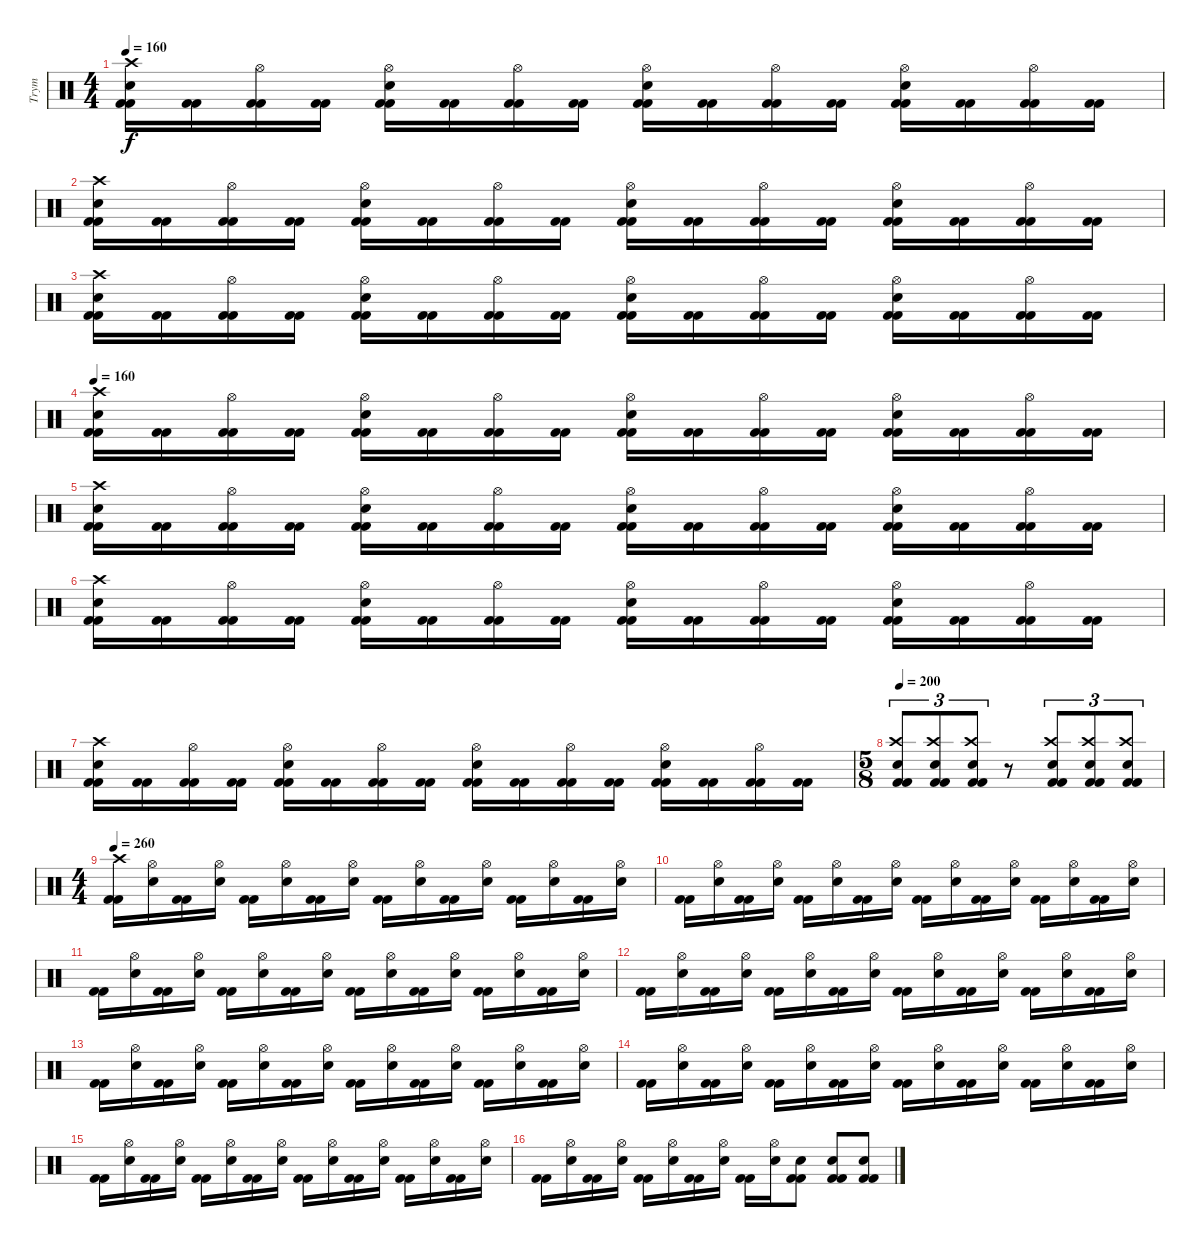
\track ("Trym" "Trym") {instrument percussion}
\staff {score}
\articulation defaults
\ts (4 4)
\tempo 160
\clef neutral
\ks c
("Kick (hit) 2" "Crash high (hit)" "Snare (hit) 2" "Kick (hit) 2").16{dy f} ("Kick (hit) 2" "Kick (hit) 2").16 ("Kick (hit) 2" "Hi-Hat (open)" "Kick (hit) 2").16 ("Kick (hit) 2" "Kick (hit) 2").16 ("Kick (hit) 2" "Hi-Hat (open)" "Snare (hit) 2" "Kick (hit) 2").16 ("Kick (hit) 2" "Kick (hit) 2").16 ("Kick (hit) 2" "Hi-Hat (open)" "Kick (hit) 2").16 ("Kick (hit) 2" "Kick (hit) 2").16 ("Kick (hit) 2" "Hi-Hat (open)" "Snare (hit) 2" "Kick (hit) 2").16 ("Kick (hit) 2" "Kick (hit) 2").16 ("Kick (hit) 2" "Hi-Hat (open)" "Kick (hit) 2").16 ("Kick (hit) 2" "Kick (hit) 2").16 ("Kick (hit) 2" "Hi-Hat (open)" "Snare (hit) 2" "Kick (hit) 2").16 ("Kick (hit) 2" "Kick (hit) 2").16 ("Kick (hit) 2" "Hi-Hat (open)" "Kick (hit) 2").16 ("Kick (hit) 2" "Kick (hit) 2").16 |
("Kick (hit) 2" "Crash high (hit)" "Snare (hit) 2" "Kick (hit) 2").16 ("Kick (hit) 2" "Kick (hit) 2").16 ("Kick (hit) 2" "Hi-Hat (open)" "Kick (hit) 2").16 ("Kick (hit) 2" "Kick (hit) 2").16 ("Kick (hit) 2" "Hi-Hat (open)" "Snare (hit) 2" "Kick (hit) 2").16 ("Kick (hit) 2" "Kick (hit) 2").16 ("Kick (hit) 2" "Hi-Hat (open)" "Kick (hit) 2").16 ("Kick (hit) 2" "Kick (hit) 2").16 ("Kick (hit) 2" "Hi-Hat (open)" "Snare (hit) 2" "Kick (hit) 2").16 ("Kick (hit) 2" "Kick (hit) 2").16 ("Kick (hit) 2" "Hi-Hat (open)" "Kick (hit) 2").16 ("Kick (hit) 2" "Kick (hit) 2").16 ("Kick (hit) 2" "Hi-Hat (open)" "Snare (hit) 2" "Kick (hit) 2").16 ("Kick (hit) 2" "Kick (hit) 2").16 ("Kick (hit) 2" "Hi-Hat (open)" "Kick (hit) 2").16 ("Kick (hit) 2" "Kick (hit) 2").16 |
("Kick (hit) 2" "Crash high (hit)" "Snare (hit) 2" "Kick (hit) 2").16 ("Kick (hit) 2" "Kick (hit) 2").16 ("Kick (hit) 2" "Hi-Hat (open)" "Kick (hit) 2").16 ("Kick (hit) 2" "Kick (hit) 2").16 ("Kick (hit) 2" "Hi-Hat (open)" "Snare (hit) 2" "Kick (hit) 2").16 ("Kick (hit) 2" "Kick (hit) 2").16 ("Kick (hit) 2" "Hi-Hat (open)" "Kick (hit) 2").16 ("Kick (hit) 2" "Kick (hit) 2").16 ("Kick (hit) 2" "Hi-Hat (open)" "Snare (hit) 2" "Kick (hit) 2").16 ("Kick (hit) 2" "Kick (hit) 2").16 ("Kick (hit) 2" "Hi-Hat (open)" "Kick (hit) 2").16 ("Kick (hit) 2" "Kick (hit) 2").16 ("Kick (hit) 2" "Hi-Hat (open)" "Snare (hit) 2" "Kick (hit) 2").16 ("Kick (hit) 2" "Kick (hit) 2").16 ("Kick (hit) 2" "Hi-Hat (open)" "Kick (hit) 2").16 ("Kick (hit) 2" "Kick (hit) 2").16 |
\tempo 160
("Kick (hit) 2" "Crash high (hit)" "Snare (hit) 2" "Kick (hit) 2").16 ("Kick (hit) 2" "Kick (hit) 2").16 ("Kick (hit) 2" "Hi-Hat (open)" "Kick (hit) 2").16 ("Kick (hit) 2" "Kick (hit) 2").16 ("Kick (hit) 2" "Hi-Hat (open)" "Snare (hit) 2" "Kick (hit) 2").16 ("Kick (hit) 2" "Kick (hit) 2").16 ("Kick (hit) 2" "Hi-Hat (open)" "Kick (hit) 2").16 ("Kick (hit) 2" "Kick (hit) 2").16 ("Kick (hit) 2" "Hi-Hat (open)" "Snare (hit) 2" "Kick (hit) 2").16 ("Kick (hit) 2" "Kick (hit) 2").16 ("Kick (hit) 2" "Hi-Hat (open)" "Kick (hit) 2").16 ("Kick (hit) 2" "Kick (hit) 2").16 ("Kick (hit) 2" "Hi-Hat (open)" "Snare (hit) 2" "Kick (hit) 2").16 ("Kick (hit) 2" "Kick (hit) 2").16 ("Kick (hit) 2" "Hi-Hat (open)" "Kick (hit) 2").16 ("Kick (hit) 2" "Kick (hit) 2").16 |
("Kick (hit) 2" "Crash high (hit)" "Snare (hit) 2" "Kick (hit) 2").16 ("Kick (hit) 2" "Kick (hit) 2").16 ("Kick (hit) 2" "Hi-Hat (open)" "Kick (hit) 2").16 ("Kick (hit) 2" "Kick (hit) 2").16 ("Kick (hit) 2" "Hi-Hat (open)" "Snare (hit) 2" "Kick (hit) 2").16 ("Kick (hit) 2" "Kick (hit) 2").16 ("Kick (hit) 2" "Hi-Hat (open)" "Kick (hit) 2").16 ("Kick (hit) 2" "Kick (hit) 2").16 ("Kick (hit) 2" "Hi-Hat (open)" "Snare (hit) 2" "Kick (hit) 2").16 ("Kick (hit) 2" "Kick (hit) 2").16 ("Kick (hit) 2" "Hi-Hat (open)" "Kick (hit) 2").16 ("Kick (hit) 2" "Kick (hit) 2").16 ("Kick (hit) 2" "Hi-Hat (open)" "Snare (hit) 2" "Kick (hit) 2").16 ("Kick (hit) 2" "Kick (hit) 2").16 ("Kick (hit) 2" "Hi-Hat (open)" "Kick (hit) 2").16 ("Kick (hit) 2" "Kick (hit) 2").16 |
("Kick (hit) 2" "Crash high (hit)" "Snare (hit) 2" "Kick (hit) 2").16 ("Kick (hit) 2" "Kick (hit) 2").16 ("Kick (hit) 2" "Hi-Hat (open)" "Kick (hit) 2").16 ("Kick (hit) 2" "Kick (hit) 2").16 ("Kick (hit) 2" "Hi-Hat (open)" "Snare (hit) 2" "Kick (hit) 2").16 ("Kick (hit) 2" "Kick (hit) 2").16 ("Kick (hit) 2" "Hi-Hat (open)" "Kick (hit) 2").16 ("Kick (hit) 2" "Kick (hit) 2").16 ("Kick (hit) 2" "Hi-Hat (open)" "Snare (hit) 2" "Kick (hit) 2").16 ("Kick (hit) 2" "Kick (hit) 2").16 ("Kick (hit) 2" "Hi-Hat (open)" "Kick (hit) 2").16 ("Kick (hit) 2" "Kick (hit) 2").16 ("Kick (hit) 2" "Hi-Hat (open)" "Snare (hit) 2" "Kick (hit) 2").16 ("Kick (hit) 2" "Kick (hit) 2").16 ("Kick (hit) 2" "Hi-Hat (open)" "Kick (hit) 2").16 ("Kick (hit) 2" "Kick (hit) 2").16 |
("Kick (hit) 2" "Crash high (hit)" "Snare (hit) 2" "Kick (hit) 2").16 ("Kick (hit) 2" "Kick (hit) 2").16 ("Kick (hit) 2" "Hi-Hat (open)" "Kick (hit) 2").16 ("Kick (hit) 2" "Kick (hit) 2").16 ("Kick (hit) 2" "Hi-Hat (open)" "Snare (hit) 2" "Kick (hit) 2").16 ("Kick (hit) 2" "Kick (hit) 2").16 ("Kick (hit) 2" "Hi-Hat (open)" "Kick (hit) 2").16 ("Kick (hit) 2" "Kick (hit) 2").16 ("Kick (hit) 2" "Hi-Hat (open)" "Snare (hit) 2" "Kick (hit) 2").16 ("Kick (hit) 2" "Kick (hit) 2").16 ("Kick (hit) 2" "Hi-Hat (open)" "Kick (hit) 2").16 ("Kick (hit) 2" "Kick (hit) 2").16 ("Kick (hit) 2" "Hi-Hat (open)" "Snare (hit) 2" "Kick (hit) 2").16 ("Kick (hit) 2" "Kick (hit) 2").16 ("Kick (hit) 2" "Hi-Hat (open)" "Kick (hit) 2").16 ("Kick (hit) 2" "Kick (hit) 2").16 |
\ts (5 8)
\tempo 200
("Kick (hit) 2" "Crash high (hit)" "Snare (hit) 2" "Kick (hit) 2").8{tu (3 2)} ("Kick (hit) 2" "Crash high (hit)" "Snare (hit) 2" "Kick (hit) 2").8{tu (3 2)} ("Kick (hit) 2" "Crash high (hit)" "Snare (hit) 2" "Kick (hit) 2").8{tu (3 2)} r.8 ("Kick (hit) 2" "Crash high (hit)" "Snare (hit) 2" "Kick (hit) 2").8{tu (3 2)} ("Kick (hit) 2" "Crash high (hit)" "Snare (hit) 2" "Kick (hit) 2").8{tu (3 2)} ("Kick (hit) 2" "Crash high (hit)" "Snare (hit) 2" "Kick (hit) 2").8{tu (3 2)} |
\ts (4 4)
\tempo 260
("Kick (hit) 2" "Crash high (hit)" "Kick (hit) 2").16 ("Hi-Hat (open)" "Snare (hit) 2").16 ("Kick (hit) 2" "Kick (hit) 2").16 ("Hi-Hat (open)" "Snare (hit) 2").16 ("Kick (hit) 2" "Kick (hit) 2").16 ("Hi-Hat (open)" "Snare (hit) 2").16 ("Kick (hit) 2" "Kick (hit) 2").16 ("Hi-Hat (open)" "Snare (hit) 2").16 ("Kick (hit) 2" "Kick (hit) 2").16 ("Hi-Hat (open)" "Snare (hit) 2").16 ("Kick (hit) 2" "Kick (hit) 2").16 ("Hi-Hat (open)" "Snare (hit) 2").16 ("Kick (hit) 2" "Kick (hit) 2").16 ("Hi-Hat (open)" "Snare (hit) 2").16 ("Kick (hit) 2" "Kick (hit) 2").16 ("Hi-Hat (open)" "Snare (hit) 2").16 |
("Kick (hit) 2" "Kick (hit) 2").16 ("Hi-Hat (open)" "Snare (hit) 2").16 ("Kick (hit) 2" "Kick (hit) 2").16 ("Hi-Hat (open)" "Snare (hit) 2").16 ("Kick (hit) 2" "Kick (hit) 2").16 ("Hi-Hat (open)" "Snare (hit) 2").16 ("Kick (hit) 2" "Kick (hit) 2").16 ("Hi-Hat (open)" "Snare (hit) 2").16 ("Kick (hit) 2" "Kick (hit) 2").16 ("Hi-Hat (open)" "Snare (hit) 2").16 ("Kick (hit) 2" "Kick (hit) 2").16 ("Hi-Hat (open)" "Snare (hit) 2").16 ("Kick (hit) 2" "Kick (hit) 2").16 ("Hi-Hat (open)" "Snare (hit) 2").16 ("Kick (hit) 2" "Kick (hit) 2").16 ("Hi-Hat (open)" "Snare (hit) 2").16 |
("Kick (hit) 2" "Kick (hit) 2").16 ("Hi-Hat (open)" "Snare (hit) 2").16 ("Kick (hit) 2" "Kick (hit) 2").16 ("Hi-Hat (open)" "Snare (hit) 2").16 ("Kick (hit) 2" "Kick (hit) 2").16 ("Hi-Hat (open)" "Snare (hit) 2").16 ("Kick (hit) 2" "Kick (hit) 2").16 ("Hi-Hat (open)" "Snare (hit) 2").16 ("Kick (hit) 2" "Kick (hit) 2").16 ("Hi-Hat (open)" "Snare (hit) 2").16 ("Kick (hit) 2" "Kick (hit) 2").16 ("Hi-Hat (open)" "Snare (hit) 2").16 ("Kick (hit) 2" "Kick (hit) 2").16 ("Hi-Hat (open)" "Snare (hit) 2").16 ("Kick (hit) 2" "Kick (hit) 2").16 ("Hi-Hat (open)" "Snare (hit) 2").16 |
("Kick (hit) 2" "Kick (hit) 2").16 ("Hi-Hat (open)" "Snare (hit) 2").16 ("Kick (hit) 2" "Kick (hit) 2").16 ("Hi-Hat (open)" "Snare (hit) 2").16 ("Kick (hit) 2" "Kick (hit) 2").16 ("Hi-Hat (open)" "Snare (hit) 2").16 ("Kick (hit) 2" "Kick (hit) 2").16 ("Hi-Hat (open)" "Snare (hit) 2").16 ("Kick (hit) 2" "Kick (hit) 2").16 ("Hi-Hat (open)" "Snare (hit) 2").16 ("Kick (hit) 2" "Kick (hit) 2").16 ("Hi-Hat (open)" "Snare (hit) 2").16 ("Kick (hit) 2" "Kick (hit) 2").16 ("Hi-Hat (open)" "Snare (hit) 2").16 ("Kick (hit) 2" "Kick (hit) 2").16 ("Hi-Hat (open)" "Snare (hit) 2").16 |
("Kick (hit) 2" "Kick (hit) 2").16 ("Hi-Hat (open)" "Snare (hit) 2").16 ("Kick (hit) 2" "Kick (hit) 2").16 ("Hi-Hat (open)" "Snare (hit) 2").16 ("Kick (hit) 2" "Kick (hit) 2").16 ("Hi-Hat (open)" "Snare (hit) 2").16 ("Kick (hit) 2" "Kick (hit) 2").16 ("Hi-Hat (open)" "Snare (hit) 2").16 ("Kick (hit) 2" "Kick (hit) 2").16 ("Hi-Hat (open)" "Snare (hit) 2").16 ("Kick (hit) 2" "Kick (hit) 2").16 ("Hi-Hat (open)" "Snare (hit) 2").16 ("Kick (hit) 2" "Kick (hit) 2").16 ("Hi-Hat (open)" "Snare (hit) 2").16 ("Kick (hit) 2" "Kick (hit) 2").16 ("Hi-Hat (open)" "Snare (hit) 2").16 |
("Kick (hit) 2" "Kick (hit) 2").16 ("Hi-Hat (open)" "Snare (hit) 2").16 ("Kick (hit) 2" "Kick (hit) 2").16 ("Hi-Hat (open)" "Snare (hit) 2").16 ("Kick (hit) 2" "Kick (hit) 2").16 ("Hi-Hat (open)" "Snare (hit) 2").16 ("Kick (hit) 2" "Kick (hit) 2").16 ("Hi-Hat (open)" "Snare (hit) 2").16 ("Kick (hit) 2" "Kick (hit) 2").16 ("Hi-Hat (open)" "Snare (hit) 2").16 ("Kick (hit) 2" "Kick (hit) 2").16 ("Hi-Hat (open)" "Snare (hit) 2").16 ("Kick (hit) 2" "Kick (hit) 2").16 ("Hi-Hat (open)" "Snare (hit) 2").16 ("Kick (hit) 2" "Kick (hit) 2").16 ("Hi-Hat (open)" "Snare (hit) 2").16 |
("Kick (hit) 2" "Kick (hit) 2").16 ("Hi-Hat (open)" "Snare (hit) 2").16 ("Kick (hit) 2" "Kick (hit) 2").16 ("Hi-Hat (open)" "Snare (hit) 2").16 ("Kick (hit) 2" "Kick (hit) 2").16 ("Hi-Hat (open)" "Snare (hit) 2").16 ("Kick (hit) 2" "Kick (hit) 2").16 ("Hi-Hat (open)" "Snare (hit) 2").16 ("Kick (hit) 2" "Kick (hit) 2").16 ("Hi-Hat (open)" "Snare (hit) 2").16 ("Kick (hit) 2" "Kick (hit) 2").16 ("Hi-Hat (open)" "Snare (hit) 2").16 ("Kick (hit) 2" "Kick (hit) 2").16 ("Hi-Hat (open)" "Snare (hit) 2").16 ("Kick (hit) 2" "Kick (hit) 2").16 ("Hi-Hat (open)" "Snare (hit) 2").16 |
("Kick (hit) 2" "Kick (hit) 2").16 ("Hi-Hat (open)" "Snare (hit) 2").16 ("Kick (hit) 2" "Kick (hit) 2").16 ("Hi-Hat (open)" "Snare (hit) 2").16 ("Kick (hit) 2" "Kick (hit) 2").16 ("Hi-Hat (open)" "Snare (hit) 2").16 ("Kick (hit) 2" "Kick (hit) 2").16 ("Hi-Hat (open)" "Snare (hit) 2").16 ("Kick (hit) 2" "Kick (hit) 2").16 ("Hi-Hat (open)" "Snare (hit) 2").16 ("Kick (hit) 2" "Snare (hit) 2" "Kick (hit) 2").8 ("Kick (hit) 2" "Snare (hit) 2" "Kick (hit) 2").8 ("Kick (hit) 2" "Snare (hit) 2" "Kick (hit) 2").8
